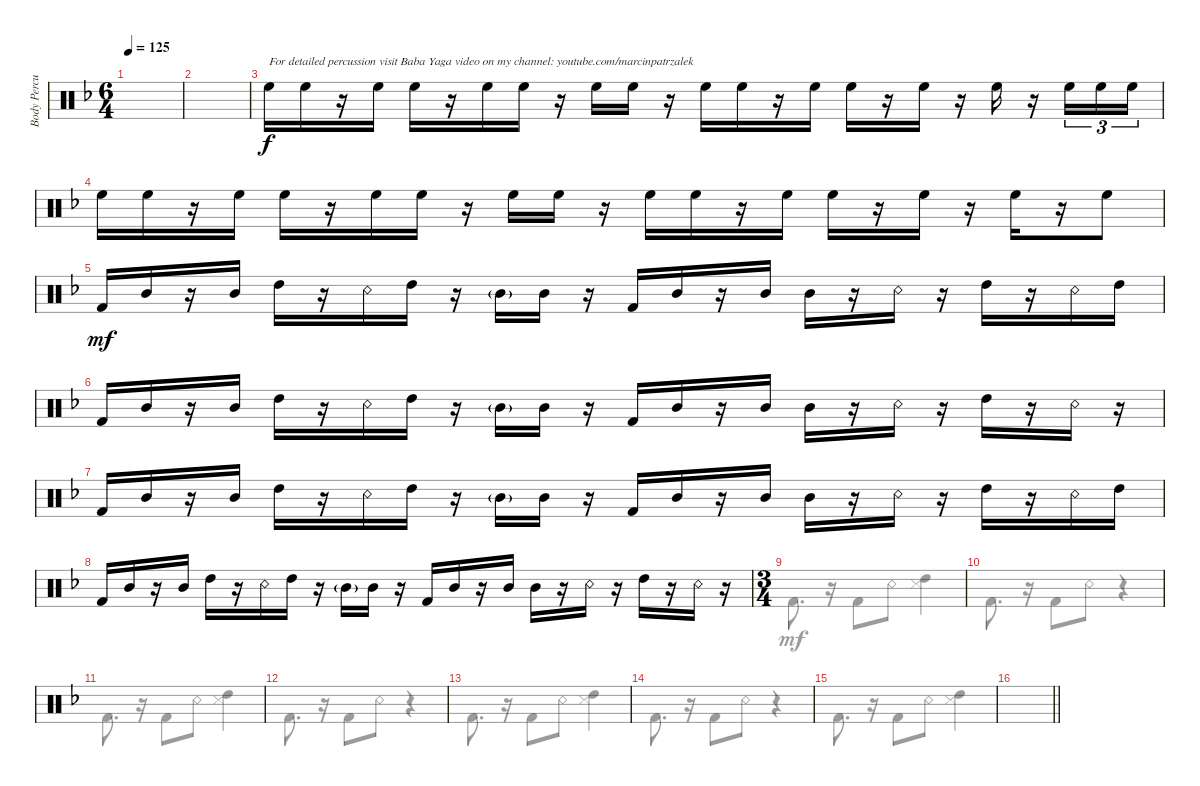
\track ("Body Percussion" "Body Percu") {instrument percussion}
\staff {score}
\articulation defaults
\voice
\ts (6 4)
\tempo 125
\clef neutral
\ks dminor
|
|
"High Floor Tom (hit)".16{txt "For detailed percussion visit Baba Yaga video on my channel: youtube.com/marcinpatrzalek"} "High Floor Tom (hit)".16 r.16 "High Floor Tom (hit)".16 "High Floor Tom (hit)".16 r.16 "High Floor Tom (hit)".16 "High Floor Tom (hit)".16 r.16 "High Floor Tom (hit)".16 "High Floor Tom (hit)".16 r.16 "High Floor Tom (hit)".16 "High Floor Tom (hit)".16 r.16 "High Floor Tom (hit)".16 "High Floor Tom (hit)".16 r.16 "High Floor Tom (hit)".16 r.16 "High Floor Tom (hit)".16 r.16 "High Floor Tom (hit)".16{tu (3 2)} "High Floor Tom (hit)".16{tu (3 2)} "High Floor Tom (hit)".16{tu (3 2)} |
"High Floor Tom (hit)".16 "High Floor Tom (hit)".16 r.16 "High Floor Tom (hit)".16 "High Floor Tom (hit)".16 r.16 "High Floor Tom (hit)".16 "High Floor Tom (hit)".16 r.16 "High Floor Tom (hit)".16 "High Floor Tom (hit)".16 r.16 "High Floor Tom (hit)".16 "High Floor Tom (hit)".16 r.16 "High Floor Tom (hit)".16 "High Floor Tom (hit)".16 r.16 "High Floor Tom (hit)".16 r.16 "High Floor Tom (hit)".16 r.16 "High Floor Tom (hit)".8 |
"Kick (hit) 2".16{dy mf} "Mid Tom (hit)".16 r.16 "Mid Tom (hit)".16 "High Tom (hit)".16 r.16 "Snare (rim shot)".16 "High Tom (hit)".16 r.16 "Mid Tom (hit)"{g}.16 "Mid Tom (hit)".16 r.16 "Kick (hit) 2".16 "Mid Tom (hit)".16 r.16 "Mid Tom (hit)".16 "Mid Tom (hit)".16 r.16 "Snare (rim shot)".16 r.16 "High Tom (hit)".16 r.16 "Snare (rim shot)".16 "High Tom (hit)".16 |
"Kick (hit) 2".16 "Mid Tom (hit)".16 r.16 "Mid Tom (hit)".16 "High Tom (hit)".16 r.16 "Snare (rim shot)".16 "High Tom (hit)".16 r.16 "Mid Tom (hit)"{g}.16 "Mid Tom (hit)".16 r.16 "Kick (hit) 2".16 "Mid Tom (hit)".16 r.16 "Mid Tom (hit)".16 "Mid Tom (hit)".16 r.16 "Snare (rim shot)".16 r.16 "High Tom (hit)".16 r.16 "Snare (rim shot)".16 r.16 |
"Kick (hit) 2".16 "Mid Tom (hit)".16 r.16 "Mid Tom (hit)".16 "High Tom (hit)".16 r.16 "Snare (rim shot)".16 "High Tom (hit)".16 r.16 "Mid Tom (hit)"{g}.16 "Mid Tom (hit)".16 r.16 "Kick (hit) 2".16 "Mid Tom (hit)".16 r.16 "Mid Tom (hit)".16 "Mid Tom (hit)".16 r.16 "Snare (rim shot)".16 r.16 "High Tom (hit)".16 r.16 "Snare (rim shot)".16 "High Tom (hit)".16 |
"Kick (hit) 2".16 "Mid Tom (hit)".16 r.16 "Mid Tom (hit)".16 "High Tom (hit)".16 r.16 "Snare (rim shot)".16 "High Tom (hit)".16 r.16 "Mid Tom (hit)"{g}.16 "Mid Tom (hit)".16 r.16 "Kick (hit) 2".16 "Mid Tom (hit)".16 r.16 "Mid Tom (hit)".16 "Mid Tom (hit)".16 r.16 "Snare (rim shot)".16 r.16 "High Tom (hit)".16 r.16 "Snare (rim shot)".16 r.16 |
\ts (3 4)
|
|
|
|
|
|
|
\barLineRight lightlight
\voice
\clef neutral
\ottava regular
\simile none
\ks dminor
|
|
|
|
|
|
|
|
"Kick (hit) 2".8{d} r.16 "Kick (hit) 2".8 "Snare (rim shot)".8 ("High Tom (hit)" "Snare (side stick) 3").4 |
"Kick (hit) 2".8{d} r.16 "Kick (hit) 2".8 "Snare (rim shot)".8 r.4 |
"Kick (hit) 2".8{d} r.16 "Kick (hit) 2".8 "Snare (rim shot)".8 ("High Tom (hit)" "Snare (side stick) 3").4 |
"Kick (hit) 2".8{d} r.16 "Kick (hit) 2".8 "Snare (rim shot)".8 r.4 |
"Kick (hit) 2".8{d} r.16 "Kick (hit) 2".8 "Snare (rim shot)".8 ("High Tom (hit)" "Snare (side stick) 3").4 |
"Kick (hit) 2".8{d} r.16 "Kick (hit) 2".8 "Snare (rim shot)".8 r.4 |
"Kick (hit) 2".8{d} r.16 "Kick (hit) 2".8 "Snare (rim shot)".8 ("High Tom (hit)" "Snare (side stick) 3").4 |
\barLineRight lightlight
